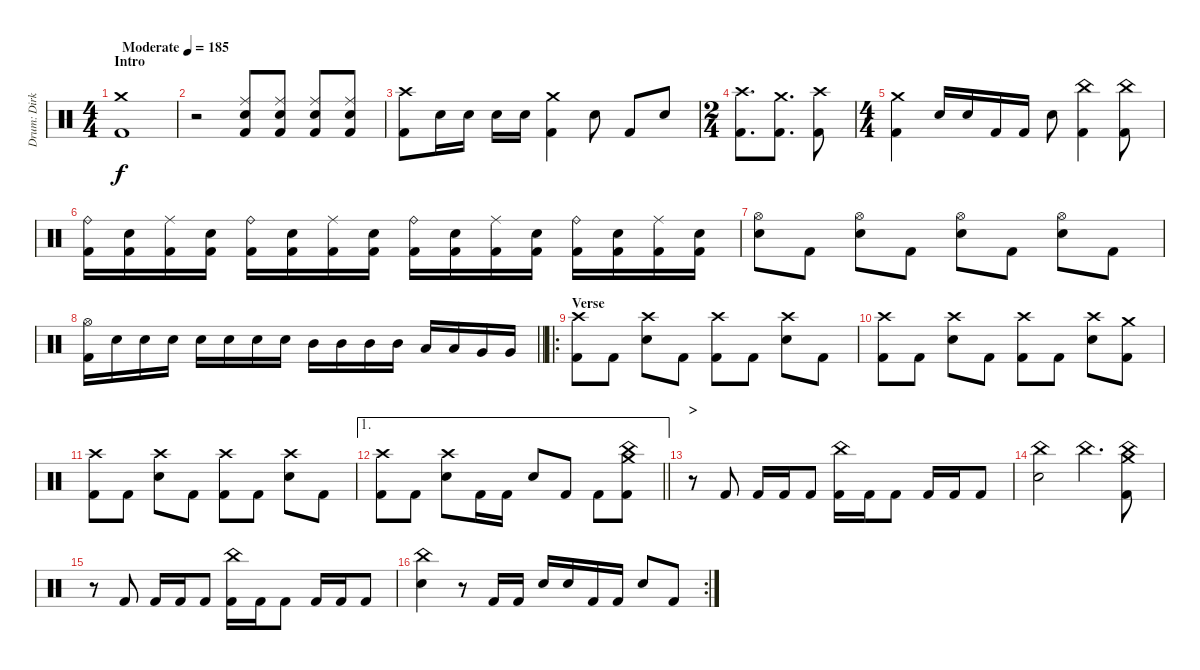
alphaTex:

\track ("Drum: Dirk" "Drum: Dirk") {instrument percussion}
\staff {score}
\articulation defaults
\ts (4 4)
\section ("" "Intro")
\tempo (185 "Moderate")
\clef neutral
\ks c
("Crash medium (hit)" "Kick (hit) 2").1{dy f} |
r.2 ("Ride (middle)" "Electric Snare (hit)" "Kick (hit) 2").8 ("Ride (middle)" "Electric Snare (hit)" "Kick (hit) 2").8 ("Ride (middle)" "Electric Snare (hit)" "Kick (hit) 2").8 ("Ride (middle)" "Electric Snare (hit)" "Kick (hit) 2").8 |
("Crash high (hit)" "Kick (hit) 2").8 "Electric Snare (hit)".16 "Electric Snare (hit)".16 "Electric Snare (hit)".16 "Electric Snare (hit)".16 ("Crash medium (hit)" "Kick (hit) 2").4 "Electric Snare (hit)".8 "Kick (hit) 2".8 "Electric Snare (hit)".8 |
\ts (2 4)
("Crash high (hit)" "Kick (hit) 2").8{d} ("Crash medium (hit)" "Kick (hit) 2").8{d} ("Crash high (hit)" "Kick (hit) 2").8 |
\ts (4 4)
("Crash medium (hit)" "Kick (hit) 2").4 "Electric Snare (hit)".16 "Electric Snare (hit)".16 "Kick (hit) 2".16 "Kick (hit) 2".16 "Electric Snare (hit)".8 ("China (hit)" "Kick (hit) 2").4 ("China (hit)" "Kick (hit) 2").8 |
("Ride (bell)" "Kick (hit) 2").16 ("Electric Snare (hit)" "Kick (hit) 2").16 ("Ride (middle)" "Kick (hit) 2").16 ("Electric Snare (hit)" "Kick (hit) 2").16 ("Ride (bell)" "Kick (hit) 2").16 ("Electric Snare (hit)" "Kick (hit) 2").16 ("Ride (middle)" "Kick (hit) 2").16 ("Electric Snare (hit)" "Kick (hit) 2").16 ("Ride (bell)" "Kick (hit) 2").16 ("Electric Snare (hit)" "Kick (hit) 2").16 ("Ride (middle)" "Kick (hit) 2").16 ("Electric Snare (hit)" "Kick (hit) 2").16 ("Ride (bell)" "Kick (hit) 2").16 ("Electric Snare (hit)" "Kick (hit) 2").16 ("Ride (middle)" "Kick (hit) 2").16 ("Electric Snare (hit)" "Kick (hit) 2").16 |
("Hi-Hat (open)" "Electric Snare (hit)").8 "Kick (hit) 2".8 ("Hi-Hat (open)" "Electric Snare (hit)").8 "Kick (hit) 2".8 ("Hi-Hat (open)" "Electric Snare (hit)").8 "Kick (hit) 2".8 ("Hi-Hat (open)" "Electric Snare (hit)").8 "Kick (hit) 2".8 |
\barLineRight lightlight
("Hi-Hat (open)" "Kick (hit) 2").16 "Electric Snare (hit)".16 "Electric Snare (hit)".16 "Electric Snare (hit)".16 "Electric Snare (hit)".16 "Electric Snare (hit)".16 "Electric Snare (hit)".16 "Electric Snare (hit)".16 "Mid Tom (hit)".16 "Mid Tom (hit)".16 "Mid Tom (hit)".16 "Mid Tom (hit)".16 "Low Tom (hit)".16 "Low Tom (hit)".16 "Very Low Tom (hit)".16 "Very Low Tom (hit)".16 |
\ro
\section ("" "Verse")
("Crash high (hit)" "Kick (hit) 2").8 "Kick (hit) 2".8 ("Crash high (hit)" "Electric Snare (hit)").8 "Kick (hit) 2".8 ("Crash high (hit)" "Kick (hit) 2").8 "Kick (hit) 2".8 ("Crash high (hit)" "Electric Snare (hit)").8 "Kick (hit) 2".8 |
("Crash high (hit)" "Kick (hit) 2").8 "Kick (hit) 2".8 ("Crash high (hit)" "Electric Snare (hit)").8 "Kick (hit) 2".8 ("Crash high (hit)" "Kick (hit) 2").8 "Kick (hit) 2".8 ("Crash high (hit)" "Electric Snare (hit)").8 ("Crash medium (hit)" "Kick (hit) 2").8 |
("Crash high (hit)" "Kick (hit) 2").8 "Kick (hit) 2".8 ("Crash high (hit)" "Electric Snare (hit)").8 "Kick (hit) 2".8 ("Crash high (hit)" "Kick (hit) 2").8 "Kick (hit) 2".8 ("Crash high (hit)" "Electric Snare (hit)").8 "Kick (hit) 2".8 |
\ae 1
\barLineRight lightlight
("Crash high (hit)" "Kick (hit) 2").8 "Kick (hit) 2".8 ("Crash high (hit)" "Electric Snare (hit)").8 "Kick (hit) 2".16 "Kick (hit) 2".16 "Electric Snare (hit)".8 "Kick (hit) 2".8 "Kick (hit) 2".8 ("China (hit)" "Crash medium (hit)" "Kick (hit) 2").8 |
\section ("" ">")
r.8 "Kick (hit) 2".8 "Kick (hit) 2".16 "Kick (hit) 2".16 "Kick (hit) 2".8 ("China (hit)" "Kick (hit) 2").16 "Kick (hit) 2".16 "Kick (hit) 2".8 "Kick (hit) 2".16 "Kick (hit) 2".16 "Kick (hit) 2".8 |
("China (hit)" "Electric Snare (hit)").2 "China (hit)".4{d} ("China (hit)" "Crash medium (hit)" "Kick (hit) 2").8 |
r.8 "Kick (hit) 2".8 "Kick (hit) 2".16 "Kick (hit) 2".16 "Kick (hit) 2".8 ("China (hit)" "Kick (hit) 2").16 "Kick (hit) 2".16 "Kick (hit) 2".8 "Kick (hit) 2".16 "Kick (hit) 2".16 "Kick (hit) 2".8 |
\rc 2
("China (hit)" "Electric Snare (hit)").4 r.8 "Kick (hit) 2".16 "Kick (hit) 2".16 "Electric Snare (hit)".16 "Electric Snare (hit)".16 "Kick (hit) 2".16 "Kick (hit) 2".16 "Electric Snare (hit)".8 "Kick (hit) 2".8
